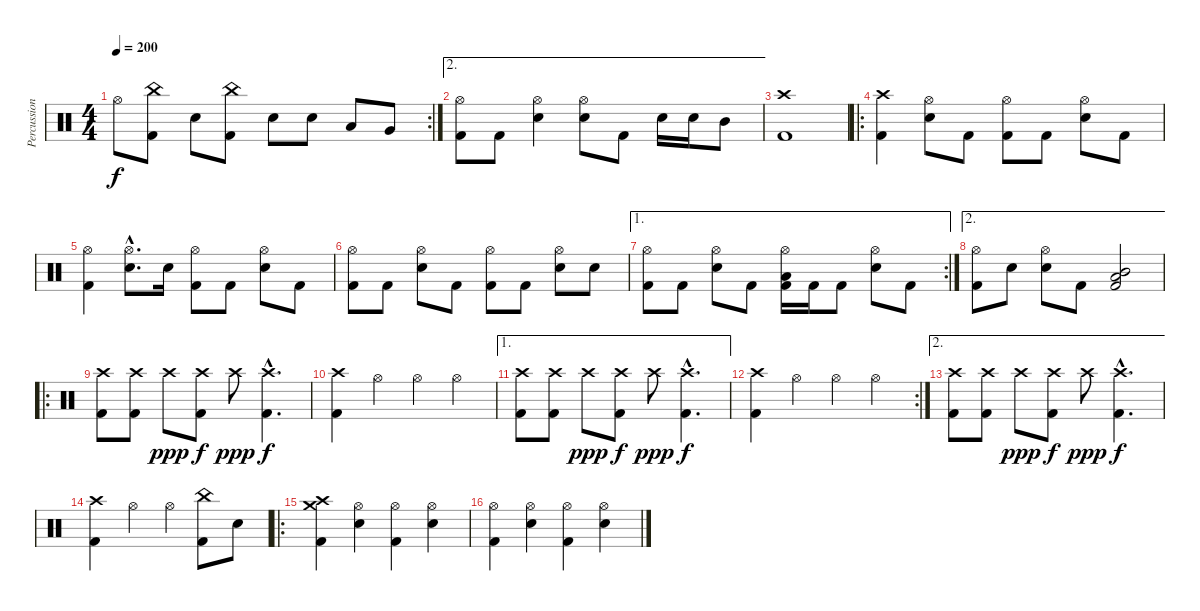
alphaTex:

\track ("Percussions" "Percussion") {instrument percussion}
\staff {score}
\articulation defaults
\rc 2
\ts (4 4)
\tempo 200
\clef neutral
\ks c "Hi-Hat (open)".8{dy f}
("China (hit)" "Kick (hit) 2").8 "Snare (hit) 2".8 ("China (hit)" "Kick (hit) 2").8 "Snare (hit) 2".8 "Snare (hit) 2".8 "Low Tom (hit)".8 "Very Low Tom (hit)".8 |
\ae 2
("Hi-Hat (open)" "Kick (hit) 2").8 "Kick (hit) 2".8 ("Hi-Hat (open)" "Snare (hit) 2").4 ("Hi-Hat (open)" "Snare (hit) 2").8 "Kick (hit) 2".8 "Snare (hit) 2".16 "Snare (hit) 2".16 "Mid Tom (hit)".8 |
("Crash high (hit)" "Kick (hit) 2").1 |
\ro
("Crash high (hit)" "Kick (hit) 2").4 ("Hi-Hat (open)" "Snare (hit) 2").8 "Kick (hit) 2".8 ("Hi-Hat (open)" "Kick (hit) 2").8 "Kick (hit) 2".8 ("Hi-Hat (open)" "Snare (hit) 2").8 "Kick (hit) 2".8 |
("Hi-Hat (open)" "Kick (hit) 2").4 ("Hi-Hat (open)"{hac} "Snare (hit) 2"{hac}).8{d} "Snare (hit) 2".16 ("Hi-Hat (open)" "Kick (hit) 2").8 "Kick (hit) 2".8 ("Hi-Hat (open)" "Snare (hit) 2").8 "Kick (hit) 2".8 |
("Hi-Hat (open)" "Kick (hit) 2").8 "Kick (hit) 2".8 ("Hi-Hat (open)" "Snare (hit) 2").8 "Kick (hit) 2".8 ("Hi-Hat (open)" "Kick (hit) 2").8 "Kick (hit) 2".8 ("Hi-Hat (open)" "Snare (hit) 2").8 "Snare (hit) 2".8 |
\ae 1
\rc 2
("Hi-Hat (open)" "Kick (hit) 2").8 "Kick (hit) 2".8 ("Hi-Hat (open)" "Snare (hit) 2").8 "Kick (hit) 2".8 ("Hi-Hat (open)" "Low Tom (hit)" "Kick (hit) 2").16 "Kick (hit) 2".16 "Kick (hit) 2".8 ("Hi-Hat (open)" "Snare (hit) 2").8 "Kick (hit) 2".8 |
\ae 2
("Hi-Hat (open)" "Kick (hit) 2").8 "Snare (hit) 2".8 ("Hi-Hat (open)" "Snare (hit) 2").8 "Kick (hit) 2".8 ("Low Tom (hit)" "Mid Tom (hit)" "Kick (hit) 2").2 |
\ro
("Crash high (hit)" "Kick (hit) 2").8 ("Crash high (hit)" "Kick (hit) 2").8 "Crash high (hit)".8{dy ppp} ("Crash high (hit)" "Kick (hit) 2").8{dy f} "Crash high (hit)".8{dy ppp} ("Crash high (hit)"{hac} "Kick (hit) 2"{hac}).4{d dy f} |
("Crash high (hit)" "Kick (hit) 2").4 "Hi-Hat (open)".4 "Hi-Hat (open)".4 "Hi-Hat (open)".4 |
\ae 1
("Crash high (hit)" "Kick (hit) 2").8 ("Crash high (hit)" "Kick (hit) 2").8 "Crash high (hit)".8{dy ppp} ("Crash high (hit)" "Kick (hit) 2").8{dy f} "Crash high (hit)".8{dy ppp} ("Crash high (hit)"{hac} "Kick (hit) 2"{hac}).4{d dy f} |
\rc 2
("Crash high (hit)" "Kick (hit) 2").4 "Hi-Hat (open)".4 "Hi-Hat (open)".4 "Hi-Hat (open)".4 |
\ae 2
("Crash high (hit)" "Kick (hit) 2").8 ("Crash high (hit)" "Kick (hit) 2").8 "Crash high (hit)".8{dy ppp} ("Crash high (hit)" "Kick (hit) 2").8{dy f} "Crash high (hit)".8{dy ppp} ("Crash high (hit)"{hac} "Kick (hit) 2"{hac}).4{d dy f} |
("Crash high (hit)" "Kick (hit) 2").4 "Hi-Hat (open)".4 "Hi-Hat (open)".4 ("China (hit)" "Kick (hit) 2").8 "Snare (hit) 2".8 |
\ro
("Crash medium (hit)" "Crash high (hit)" "Kick (hit) 2").4 ("Hi-Hat (open)" "Snare (hit) 2").4 ("Hi-Hat (open)" "Kick (hit) 2").4 ("Hi-Hat (open)" "Snare (hit) 2").4 |
("Hi-Hat (open)" "Kick (hit) 2").4 ("Hi-Hat (open)" "Snare (hit) 2").4 ("Hi-Hat (open)" "Kick (hit) 2").4 ("Hi-Hat (open)" "Snare (hit) 2").4
